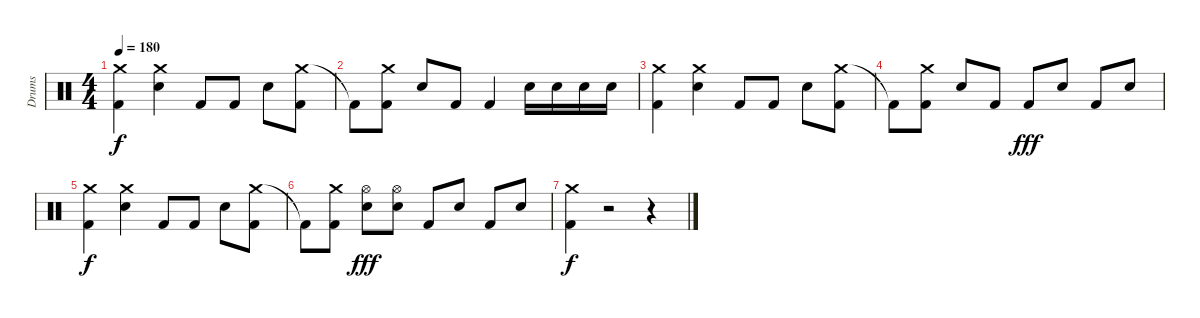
\track ("Drums" "Drums") {instrument percussion}
\staff {score}
\articulation defaults
\ts (4 4)
\tempo 180
\clef neutral
\ks c
("Crash medium (hit)" "Kick (hit) 2").4{dy f} ("Crash medium (hit)" "Electric Snare (hit)").4 "Kick (hit) 2".8 "Kick (hit) 2".8 "Electric Snare (hit)".8 ("Crash medium (hit)" "Kick (hit) 2").8 |
"Kick (hit) 2"{t}.8 ("Crash medium (hit)" "Kick (hit) 2").8 "Electric Snare (hit)".8 "Kick (hit) 2".8 "Kick (hit) 2".4 "Electric Snare (hit)".16 "Electric Snare (hit)".16 "Electric Snare (hit)".16 "Electric Snare (hit)".16 |
("Crash medium (hit)" "Kick (hit) 2").4 ("Crash medium (hit)" "Electric Snare (hit)").4 "Kick (hit) 2".8 "Kick (hit) 2".8 "Electric Snare (hit)".8 ("Crash medium (hit)" "Kick (hit) 2").8 |
"Kick (hit) 2"{t}.8 ("Crash medium (hit)" "Kick (hit) 2").8 "Electric Snare (hit)".8 "Kick (hit) 2".8 "Kick (hit) 2".8{dy fff} "Electric Snare (hit)".8 "Kick (hit) 2".8 "Electric Snare (hit)".8 |
("Crash medium (hit)" "Kick (hit) 2").4{dy f} ("Crash medium (hit)" "Electric Snare (hit)").4 "Kick (hit) 2".8 "Kick (hit) 2".8 "Electric Snare (hit)".8 ("Crash medium (hit)" "Kick (hit) 2").8 |
"Kick (hit) 2"{t}.8 ("Crash medium (hit)" "Kick (hit) 2").8 ("Hi-Hat (open)" "Electric Snare (hit)").8{dy fff} ("Hi-Hat (open)" "Electric Snare (hit)").8 "Kick (hit) 2".8 "Electric Snare (hit)".8 "Kick (hit) 2".8 "Electric Snare (hit)".8 |
("Crash medium (hit)" "Kick (hit) 2").4{dy f} r.2 r.4
